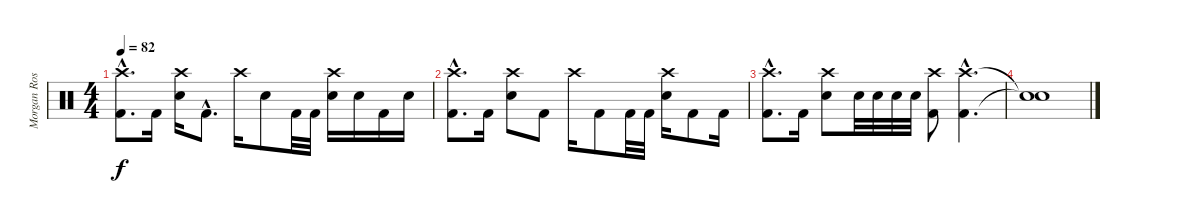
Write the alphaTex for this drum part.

\track ("Morgan Rose" "Morgan Ros") {instrument percussion}
\staff {score}
\articulation defaults
\ts (4 4)
\tempo 82
\clef neutral
\ks c
("Crash high (hit)"{hac} "Kick (hit) 2"{hac}).8{d dy f} "Kick (hit) 2".16 ("Crash high (hit)" "Electric Snare (hit)").16 "Kick (hit) 2"{hac}.8{d} "Crash high (hit)".16 "Electric Snare (hit)".8 "Kick (hit) 2".32 "Kick (hit) 2".32 ("Crash high (hit)" "Electric Snare (hit)").16 "Electric Snare (hit)".16 "Kick (hit) 2".16 "Electric Snare (hit)".16 |
("Crash high (hit)"{hac} "Kick (hit) 2"{hac}).8{d} "Kick (hit) 2".16 ("Crash high (hit)" "Electric Snare (hit)").8 "Kick (hit) 2".8 "Crash high (hit)".16 "Kick (hit) 2".8 "Kick (hit) 2".32 "Kick (hit) 2".32 ("Crash high (hit)" "Electric Snare (hit)").16 "Kick (hit) 2".8 "Kick (hit) 2".16 |
("Crash high (hit)"{hac} "Kick (hit) 2"{hac}).8{d} "Kick (hit) 2".16 ("Crash high (hit)" "Electric Snare (hit)").8 "Electric Snare (hit)".32 "Electric Snare (hit)".32 "Electric Snare (hit)".32 "Electric Snare (hit)".32 ("Crash high (hit)" "Kick (hit) 2").8 ("Crash high (hit)"{hac} "Kick (hit) 2"{hac}).4{d} |
("Snare (hit)"{t} "Snare (hit)"{t}).1
